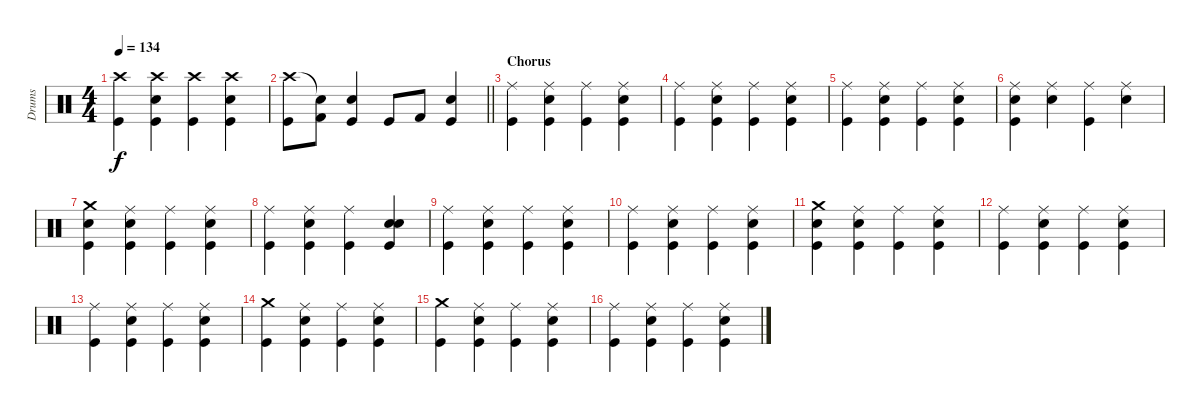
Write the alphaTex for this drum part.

\track ("Drums" "Drums") {instrument percussion}
\staff {score}
\articulation defaults
\ts (4 4)
\tempo 134
\clef neutral
\ks c
("Crash high (hit)" "Kick (hit)").4{dy f} ("Crash high (hit)" "Kick (hit)" "Snare (hit) 2").4 ("Crash high (hit)" "Kick (hit)").4 ("Crash high (hit)" "Kick (hit)" "Snare (hit) 2").4 |
\barLineRight lightlight
("Crash high (hit)" "Kick (hit)").8 ("Snare (hit)"{t} "Kick (hit) 2").8 ("Kick (hit)" "Snare (hit) 2").4 "Kick (hit)".8 "Kick (hit) 2".8 ("Kick (hit)" "Snare (hit) 2").4 |
\section ("" "Chorus")
("Ride (middle)" "Kick (hit)").4 ("Ride (middle)" "Kick (hit)" "Snare (hit) 2").4 ("Ride (middle)" "Kick (hit)").4 ("Ride (middle)" "Kick (hit)" "Snare (hit) 2").4 |
("Ride (middle)" "Kick (hit)").4 ("Ride (middle)" "Kick (hit)" "Snare (hit) 2").4 ("Ride (middle)" "Kick (hit)").4 ("Ride (middle)" "Kick (hit)" "Snare (hit) 2").4 |
("Ride (middle)" "Kick (hit)").4 ("Ride (middle)" "Kick (hit)" "Snare (hit) 2").4 ("Ride (middle)" "Kick (hit)").4 ("Ride (middle)" "Kick (hit)" "Snare (hit) 2").4 |
("Ride (middle)" "Kick (hit)" "Snare (hit) 2").4 ("Ride (middle)" "Snare (hit) 2").4 ("Ride (middle)" "Kick (hit)").4 ("Ride (middle)" "Snare (hit) 2").4 |
("Crash medium (hit)" "Snare (hit) 2" "Kick (hit)").4 ("Ride (middle)" "Kick (hit)" "Snare (hit) 2").4 ("Ride (middle)" "Kick (hit)").4 ("Ride (middle)" "Kick (hit)" "Snare (hit) 2").4 |
("Ride (middle)" "Kick (hit)").4 ("Ride (middle)" "Kick (hit)" "Snare (hit) 2").4 ("Ride (middle)" "Kick (hit)").4 ("Snare (hit)" "Kick (hit)" "Snare (hit) 2").4 |
("Ride (middle)" "Kick (hit)").4 ("Ride (middle)" "Kick (hit)" "Snare (hit) 2").4 ("Ride (middle)" "Kick (hit)").4 ("Ride (middle)" "Kick (hit)" "Snare (hit) 2").4 |
("Ride (middle)" "Kick (hit)").4 ("Ride (middle)" "Kick (hit)" "Snare (hit) 2").4 ("Ride (middle)" "Kick (hit)").4 ("Ride (middle)" "Kick (hit)" "Snare (hit) 2").4 |
("Crash medium (hit)" "Snare (hit) 2" "Kick (hit)").4 ("Ride (middle)" "Kick (hit)" "Snare (hit) 2").4 ("Ride (middle)" "Kick (hit)").4 ("Ride (middle)" "Kick (hit)" "Snare (hit) 2").4 |
("Ride (middle)" "Kick (hit)").4 ("Ride (middle)" "Kick (hit)" "Snare (hit) 2").4 ("Ride (middle)" "Kick (hit)").4 ("Ride (middle)" "Kick (hit)" "Snare (hit) 2").4 |
("Ride (middle)" "Kick (hit)").4 ("Ride (middle)" "Kick (hit)" "Snare (hit) 2").4 ("Ride (middle)" "Kick (hit)").4 ("Ride (middle)" "Kick (hit)" "Snare (hit) 2").4 |
("Crash medium (hit)" "Kick (hit)").4 ("Ride (middle)" "Kick (hit)" "Snare (hit) 2").4 ("Ride (middle)" "Kick (hit)").4 ("Ride (middle)" "Kick (hit)" "Snare (hit) 2").4 |
("Crash medium (hit)" "Kick (hit)").4 ("Ride (middle)" "Kick (hit)" "Snare (hit) 2").4 ("Ride (middle)" "Kick (hit)").4 ("Ride (middle)" "Kick (hit)" "Snare (hit) 2").4 |
("Ride (middle)" "Kick (hit)").4 ("Ride (middle)" "Kick (hit)" "Snare (hit) 2").4 ("Ride (middle)" "Kick (hit)").4 ("Ride (middle)" "Kick (hit)" "Snare (hit) 2").4
